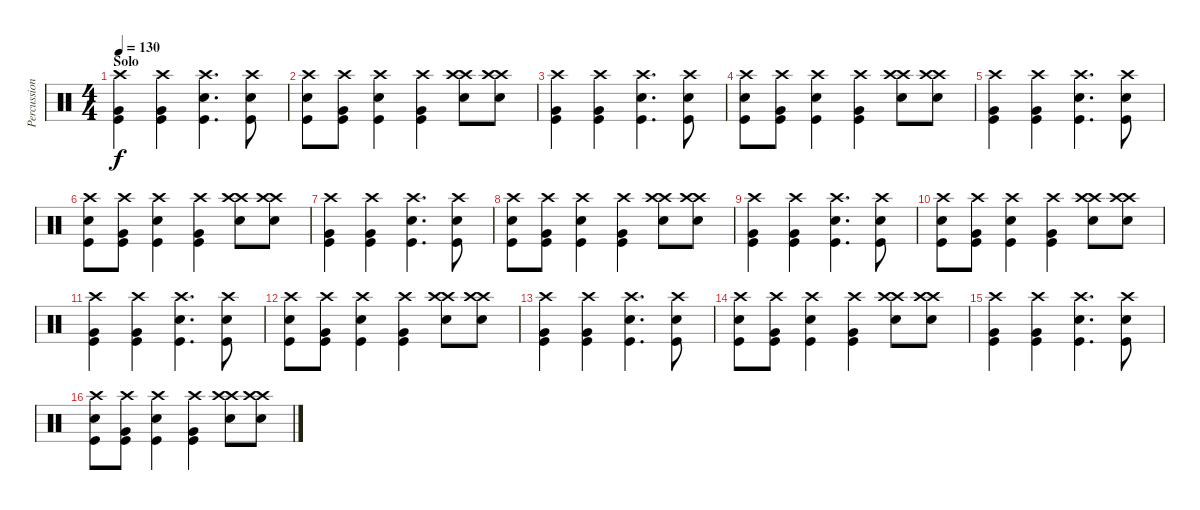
\track ("Percussions" "Percussion") {instrument percussion}
\staff {score}
\articulation defaults
\ts (4 4)
\section ("" "Solo")
\tempo 130
\clef neutral
\ks c
("Crash high (hit)" "Very Low Tom (hit)" "Kick (hit)").4{dy f} ("Crash high (hit)" "Very Low Tom (hit)" "Kick (hit)").4 ("Crash high (hit)" "Snare (hit) 2" "Kick (hit)").4{d} ("Crash high (hit)" "Snare (hit) 2" "Kick (hit)").8 |
("Crash high (hit)" "Snare (hit) 2" "Kick (hit)").8 ("Crash high (hit)" "Very Low Tom (hit)" "Kick (hit)").8 ("Crash high (hit)" "Snare (hit) 2" "Kick (hit)").4 ("Crash high (hit)" "Very Low Tom (hit)" "Kick (hit)").4 ("Crash high (hit)" "Snare (hit) 2" "Crash high (hit)").8 ("Crash high (hit)" "Snare (hit) 2" "Crash high (hit)").8 |
("Crash high (hit)" "Very Low Tom (hit)" "Kick (hit)").4 ("Crash high (hit)" "Very Low Tom (hit)" "Kick (hit)").4 ("Crash high (hit)" "Snare (hit) 2" "Kick (hit)").4{d} ("Crash high (hit)" "Snare (hit) 2" "Kick (hit)").8 |
("Crash high (hit)" "Snare (hit) 2" "Kick (hit)").8 ("Crash high (hit)" "Very Low Tom (hit)" "Kick (hit)").8 ("Crash high (hit)" "Snare (hit) 2" "Kick (hit)").4 ("Crash high (hit)" "Very Low Tom (hit)" "Kick (hit)").4 ("Crash high (hit)" "Snare (hit) 2" "Crash high (hit)").8 ("Crash high (hit)" "Snare (hit) 2" "Crash high (hit)").8 |
("Crash high (hit)" "Very Low Tom (hit)" "Kick (hit)").4 ("Crash high (hit)" "Very Low Tom (hit)" "Kick (hit)").4 ("Crash high (hit)" "Snare (hit) 2" "Kick (hit)").4{d} ("Crash high (hit)" "Snare (hit) 2" "Kick (hit)").8 |
("Crash high (hit)" "Snare (hit) 2" "Kick (hit)").8 ("Crash high (hit)" "Very Low Tom (hit)" "Kick (hit)").8 ("Crash high (hit)" "Snare (hit) 2" "Kick (hit)").4 ("Crash high (hit)" "Very Low Tom (hit)" "Kick (hit)").4 ("Crash high (hit)" "Snare (hit) 2" "Crash high (hit)").8 ("Crash high (hit)" "Snare (hit) 2" "Crash high (hit)").8 |
("Crash high (hit)" "Very Low Tom (hit)" "Kick (hit)").4 ("Crash high (hit)" "Very Low Tom (hit)" "Kick (hit)").4 ("Crash high (hit)" "Snare (hit) 2" "Kick (hit)").4{d} ("Crash high (hit)" "Snare (hit) 2" "Kick (hit)").8 |
("Crash high (hit)" "Snare (hit) 2" "Kick (hit)").8 ("Crash high (hit)" "Very Low Tom (hit)" "Kick (hit)").8 ("Crash high (hit)" "Snare (hit) 2" "Kick (hit)").4 ("Crash high (hit)" "Very Low Tom (hit)" "Kick (hit)").4 ("Crash high (hit)" "Snare (hit) 2" "Crash high (hit)").8 ("Crash high (hit)" "Snare (hit) 2" "Crash high (hit)").8 |
("Crash high (hit)" "Very Low Tom (hit)" "Kick (hit)").4 ("Crash high (hit)" "Very Low Tom (hit)" "Kick (hit)").4 ("Crash high (hit)" "Snare (hit) 2" "Kick (hit)").4{d} ("Crash high (hit)" "Snare (hit) 2" "Kick (hit)").8 |
("Crash high (hit)" "Snare (hit) 2" "Kick (hit)").8 ("Crash high (hit)" "Very Low Tom (hit)" "Kick (hit)").8 ("Crash high (hit)" "Snare (hit) 2" "Kick (hit)").4 ("Crash high (hit)" "Very Low Tom (hit)" "Kick (hit)").4 ("Crash high (hit)" "Snare (hit) 2" "Crash high (hit)").8 ("Crash high (hit)" "Snare (hit) 2" "Crash high (hit)").8 |
("Crash high (hit)" "Very Low Tom (hit)" "Kick (hit)").4 ("Crash high (hit)" "Very Low Tom (hit)" "Kick (hit)").4 ("Crash high (hit)" "Snare (hit) 2" "Kick (hit)").4{d} ("Crash high (hit)" "Snare (hit) 2" "Kick (hit)").8 |
("Crash high (hit)" "Snare (hit) 2" "Kick (hit)").8 ("Crash high (hit)" "Very Low Tom (hit)" "Kick (hit)").8 ("Crash high (hit)" "Snare (hit) 2" "Kick (hit)").4 ("Crash high (hit)" "Very Low Tom (hit)" "Kick (hit)").4 ("Crash high (hit)" "Snare (hit) 2" "Crash high (hit)").8 ("Crash high (hit)" "Snare (hit) 2" "Crash high (hit)").8 |
("Crash high (hit)" "Very Low Tom (hit)" "Kick (hit)").4 ("Crash high (hit)" "Very Low Tom (hit)" "Kick (hit)").4 ("Crash high (hit)" "Snare (hit) 2" "Kick (hit)").4{d} ("Crash high (hit)" "Snare (hit) 2" "Kick (hit)").8 |
("Crash high (hit)" "Snare (hit) 2" "Kick (hit)").8 ("Crash high (hit)" "Very Low Tom (hit)" "Kick (hit)").8 ("Crash high (hit)" "Snare (hit) 2" "Kick (hit)").4 ("Crash high (hit)" "Very Low Tom (hit)" "Kick (hit)").4 ("Crash high (hit)" "Snare (hit) 2" "Crash high (hit)").8 ("Crash high (hit)" "Snare (hit) 2" "Crash high (hit)").8 |
("Crash high (hit)" "Very Low Tom (hit)" "Kick (hit)").4 ("Crash high (hit)" "Very Low Tom (hit)" "Kick (hit)").4 ("Crash high (hit)" "Snare (hit) 2" "Kick (hit)").4{d} ("Crash high (hit)" "Snare (hit) 2" "Kick (hit)").8 |
("Crash high (hit)" "Snare (hit) 2" "Kick (hit)").8 ("Crash high (hit)" "Very Low Tom (hit)" "Kick (hit)").8 ("Crash high (hit)" "Snare (hit) 2" "Kick (hit)").4 ("Crash high (hit)" "Very Low Tom (hit)" "Kick (hit)").4 ("Crash high (hit)" "Snare (hit) 2" "Crash high (hit)").8 ("Crash high (hit)" "Snare (hit) 2" "Crash high (hit)").8
